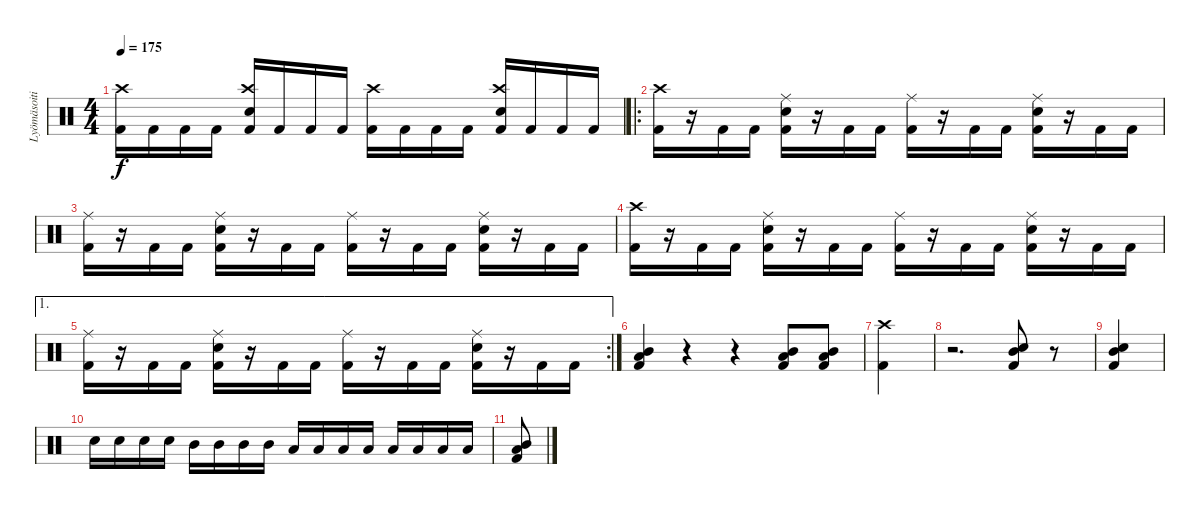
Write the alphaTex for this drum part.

\track ("Lyömäsoitin" "Lyömäsoiti") {instrument percussion}
\staff {score}
\articulation defaults
\ts (4 4)
\tempo 175
\clef neutral
\ks c
("Kick (hit) 2" "Crash high (hit)").16{dy f} "Kick (hit) 2".16 "Kick (hit) 2".16 "Kick (hit) 2".16 ("Kick (hit) 2" "Electric Snare (hit)" "Crash high (hit)").16 "Kick (hit) 2".16 "Kick (hit) 2".16 "Kick (hit) 2".16 ("Kick (hit) 2" "Crash high (hit)").16 "Kick (hit) 2".16 "Kick (hit) 2".16 "Kick (hit) 2".16 ("Kick (hit) 2" "Electric Snare (hit)" "Crash high (hit)").16 "Kick (hit) 2".16 "Kick (hit) 2".16 "Kick (hit) 2".16 |
\ro
("Kick (hit) 2" "Crash high (hit)").16 r.16 "Kick (hit) 2".16 "Kick (hit) 2".16 ("Kick (hit) 2" "Electric Snare (hit)" "Ride (middle)").16 r.16 "Kick (hit) 2".16 "Kick (hit) 2".16 ("Kick (hit) 2" "Ride (middle)").16 r.16 "Kick (hit) 2".16 "Kick (hit) 2".16 ("Kick (hit) 2" "Electric Snare (hit)" "Ride (middle)").16 r.16 "Kick (hit) 2".16 "Kick (hit) 2".16 |
("Kick (hit) 2" "Ride (middle)").16 r.16 "Kick (hit) 2".16 "Kick (hit) 2".16 ("Kick (hit) 2" "Electric Snare (hit)" "Ride (middle)").16 r.16 "Kick (hit) 2".16 "Kick (hit) 2".16 ("Kick (hit) 2" "Ride (middle)").16 r.16 "Kick (hit) 2".16 "Kick (hit) 2".16 ("Kick (hit) 2" "Electric Snare (hit)" "Ride (middle)").16 r.16 "Kick (hit) 2".16 "Kick (hit) 2".16 |
("Kick (hit) 2" "Crash high (hit)").16 r.16 "Kick (hit) 2".16 "Kick (hit) 2".16 ("Kick (hit) 2" "Electric Snare (hit)" "Ride (middle)").16 r.16 "Kick (hit) 2".16 "Kick (hit) 2".16 ("Kick (hit) 2" "Ride (middle)").16 r.16 "Kick (hit) 2".16 "Kick (hit) 2".16 ("Kick (hit) 2" "Electric Snare (hit)" "Ride (middle)").16 r.16 "Kick (hit) 2".16 "Kick (hit) 2".16 |
\ae 1
\rc 2
("Kick (hit) 2" "Ride (middle)").16 r.16 "Kick (hit) 2".16 "Kick (hit) 2".16 ("Kick (hit) 2" "Electric Snare (hit)" "Ride (middle)").16 r.16 "Kick (hit) 2".16 "Kick (hit) 2".16 ("Kick (hit) 2" "Ride (middle)").16 r.16 "Kick (hit) 2".16 "Kick (hit) 2".16 ("Kick (hit) 2" "Electric Snare (hit)" "Ride (middle)").16 r.16 "Kick (hit) 2".16 "Kick (hit) 2".16 |
("Kick (hit) 2" "Mid Tom (hit)" "Low Tom (hit)").4 r.4 r.4 ("Kick (hit) 2" "Mid Tom (hit)" "Low Tom (hit)").8 ("Kick (hit) 2" "Mid Tom (hit)" "Low Tom (hit)").8 |
("Kick (hit) 2" "Crash high (hit)").4 |
r.2{d} ("Kick (hit) 2" "Electric Snare (hit)" "Mid Tom (hit)").8 r.8 |
("Kick (hit) 2" "Electric Snare (hit)" "Mid Tom (hit)").4 |
"Electric Snare (hit)".16 "Electric Snare (hit)".16 "Electric Snare (hit)".16 "Electric Snare (hit)".16 "Mid Tom (hit)".16 "Mid Tom (hit)".16 "Mid Tom (hit)".16 "Mid Tom (hit)".16 "Low Tom (hit)".16 "Low Tom (hit)".16 "Low Tom (hit)".16 "Low Tom (hit)".16 "Low Floor Tom (hit)".16 "Low Floor Tom (hit)".16 "Low Floor Tom (hit)".16 "Low Floor Tom (hit)".16 |
("Kick (hit) 2" "Mid Tom (hit)" "Low Tom (hit)").8
